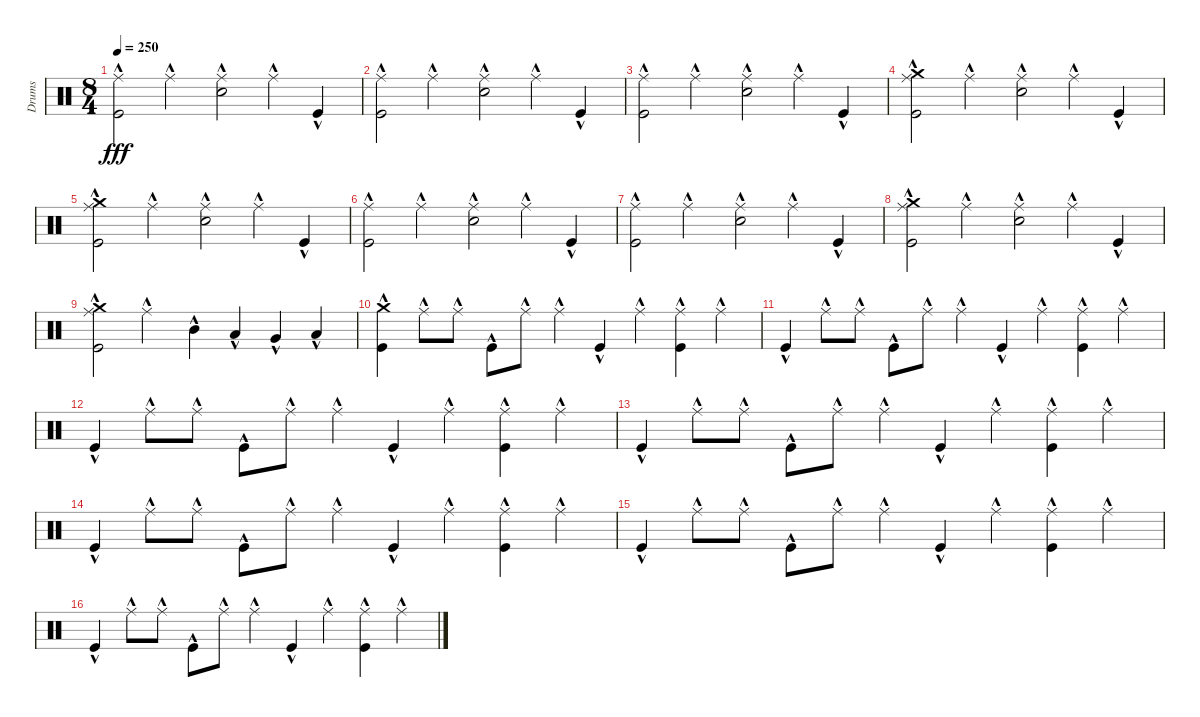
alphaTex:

\track ("Drums" "Drums") {instrument percussion}
\staff {score}
\articulation defaults
\ts (8 4)
\tempo 250
\clef neutral
\ks c
("Ride (middle)"{hac} "Kick (hit)"{hac}).2{dy fff} "Ride (middle)"{hac}.2 ("Ride (middle)"{hac} "Snare (hit) 2"{hac}).2 "Ride (middle)"{hac}.4 "Kick (hit)"{hac}.4 |
("Ride (middle)"{hac} "Kick (hit)"{hac}).2 "Ride (middle)"{hac}.2 ("Ride (middle)"{hac} "Snare (hit) 2"{hac}).2 "Ride (middle)"{hac}.4 "Kick (hit)"{hac}.4 |
("Ride (middle)"{hac} "Kick (hit)"{hac}).2 "Ride (middle)"{hac}.2 ("Ride (middle)"{hac} "Snare (hit) 2"{hac}).2 "Ride (middle)"{hac}.4 "Kick (hit)"{hac}.4 |
("Crash medium (hit)" "Ride (middle)"{hac} "Kick (hit)"{hac}).2 "Ride (middle)"{hac}.2 ("Ride (middle)"{hac} "Snare (hit) 2"{hac}).2 "Ride (middle)"{hac}.4 "Kick (hit)"{hac}.4 |
("Crash medium (hit)" "Ride (middle)"{hac} "Kick (hit)"{hac}).2 "Ride (middle)"{hac}.2 ("Ride (middle)"{hac} "Snare (hit) 2"{hac}).2 "Ride (middle)"{hac}.4 "Kick (hit)"{hac}.4 |
("Ride (middle)"{hac} "Kick (hit)"{hac}).2 "Ride (middle)"{hac}.2 ("Ride (middle)"{hac} "Snare (hit) 2"{hac}).2 "Ride (middle)"{hac}.4 "Kick (hit)"{hac}.4 |
("Ride (middle)"{hac} "Kick (hit)"{hac}).2 "Ride (middle)"{hac}.2 ("Ride (middle)"{hac} "Snare (hit) 2"{hac}).2 "Ride (middle)"{hac}.4 "Kick (hit)"{hac}.4 |
("Crash medium (hit)" "Ride (middle)"{hac} "Kick (hit)"{hac}).2 "Ride (middle)"{hac}.2 ("Ride (middle)"{hac} "Snare (hit) 2"{hac}).2 "Ride (middle)"{hac}.4 "Kick (hit)"{hac}.4 |
("Crash medium (hit)" "Ride (middle)"{hac} "Kick (hit)"{hac}).2 "Ride (middle)"{hac}.2 "Mid Tom (hit)"{hac}.4 "Low Tom (hit)"{hac}.4 "Very Low Tom (hit)"{hac}.4 "Low Floor Tom (hit)"{hac}.4 |
("Crash medium (hit)" "Kick (hit)"{hac}).4 "Ride (middle)"{hac}.8 "Ride (middle)"{hac}.8 "Kick (hit)"{hac}.8 "Ride (middle)"{hac}.8 "Ride (middle)"{hac}.4 "Kick (hit)"{hac}.4 "Ride (middle)"{hac}.4 ("Ride (middle)" "Kick (hit)"{hac}).4 "Ride (middle)"{hac}.4 |
"Kick (hit)"{hac}.4 "Ride (middle)"{hac}.8 "Ride (middle)"{hac}.8 "Kick (hit)"{hac}.8 "Ride (middle)"{hac}.8 "Ride (middle)"{hac}.4 "Kick (hit)"{hac}.4 "Ride (middle)"{hac}.4 ("Ride (middle)" "Kick (hit)"{hac}).4 "Ride (middle)"{hac}.4 |
"Kick (hit)"{hac}.4 "Ride (middle)"{hac}.8 "Ride (middle)"{hac}.8 "Kick (hit)"{hac}.8 "Ride (middle)"{hac}.8 "Ride (middle)"{hac}.4 "Kick (hit)"{hac}.4 "Ride (middle)"{hac}.4 ("Ride (middle)" "Kick (hit)"{hac}).4 "Ride (middle)"{hac}.4 |
"Kick (hit)"{hac}.4 "Ride (middle)"{hac}.8 "Ride (middle)"{hac}.8 "Kick (hit)"{hac}.8 "Ride (middle)"{hac}.8 "Ride (middle)"{hac}.4 "Kick (hit)"{hac}.4 "Ride (middle)"{hac}.4 ("Ride (middle)" "Kick (hit)"{hac}).4 "Ride (middle)"{hac}.4 |
"Kick (hit)"{hac}.4 "Ride (middle)"{hac}.8 "Ride (middle)"{hac}.8 "Kick (hit)"{hac}.8 "Ride (middle)"{hac}.8 "Ride (middle)"{hac}.4 "Kick (hit)"{hac}.4 "Ride (middle)"{hac}.4 ("Ride (middle)" "Kick (hit)"{hac}).4 "Ride (middle)"{hac}.4 |
"Kick (hit)"{hac}.4 "Ride (middle)"{hac}.8 "Ride (middle)"{hac}.8 "Kick (hit)"{hac}.8 "Ride (middle)"{hac}.8 "Ride (middle)"{hac}.4 "Kick (hit)"{hac}.4 "Ride (middle)"{hac}.4 ("Ride (middle)" "Kick (hit)"{hac}).4 "Ride (middle)"{hac}.4 |
"Kick (hit)"{hac}.4 "Ride (middle)"{hac}.8 "Ride (middle)"{hac}.8 "Kick (hit)"{hac}.8 "Ride (middle)"{hac}.8 "Ride (middle)"{hac}.4 "Kick (hit)"{hac}.4 "Ride (middle)"{hac}.4 ("Ride (middle)" "Kick (hit)"{hac}).4 "Ride (middle)"{hac}.4
